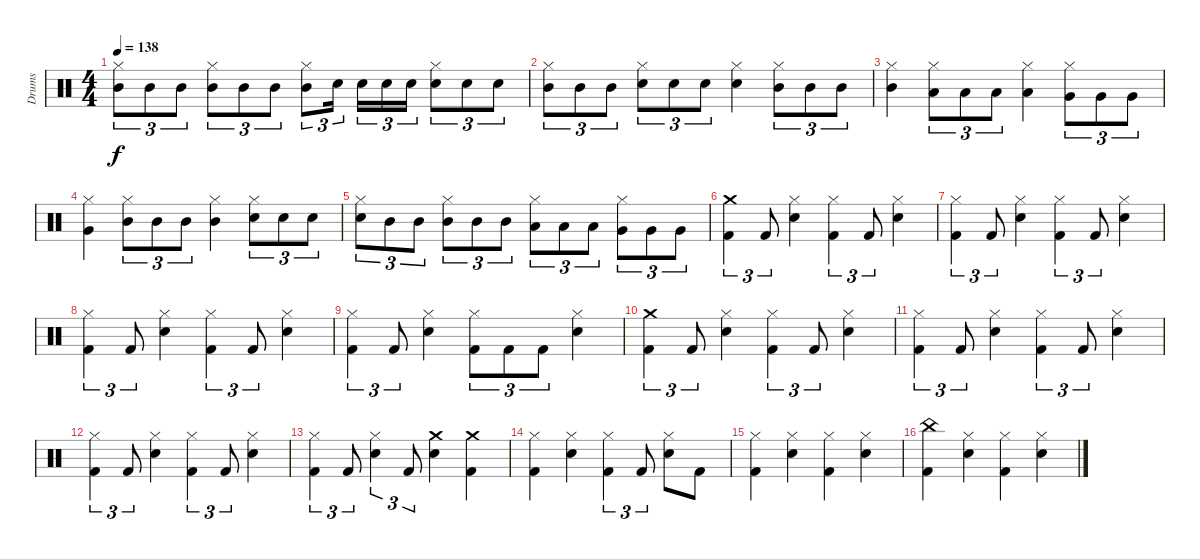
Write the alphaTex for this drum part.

\track ("Drums" "Drums") {instrument percussion}
\staff {score}
\articulation defaults
\ts (4 4)
\tempo 138
\clef neutral
\ks c
("Hi-Hat (closed)" "Mid Tom (hit)").8{tu (3 2) dy f} "Mid Tom (hit)".8{tu (3 2)} "Mid Tom (hit)".8{tu (3 2)} ("Hi-Hat (closed)" "Mid Tom (hit)").8{tu (3 2)} "Mid Tom (hit)".8{tu (3 2)} "Mid Tom (hit)".8{tu (3 2)} ("Hi-Hat (closed)" "Mid Tom (hit)").8{tu (3 2)} "Snare (hit) 2".16{tu (3 2)} "Snare (hit) 2".16{tu (3 2)} "Snare (hit) 2".16{tu (3 2)} "Snare (hit) 2".16{tu (3 2)} ("Hi-Hat (closed)" "Snare (hit) 2").8{tu (3 2)} "Snare (hit) 2".8{tu (3 2)} "Snare (hit) 2".8{tu (3 2)} |
("Hi-Hat (closed)" "Mid Tom (hit)").8{tu (3 2)} "Mid Tom (hit)".8{tu (3 2)} "Mid Tom (hit)".8{tu (3 2)} ("Hi-Hat (closed)" "Snare (hit) 2").8{tu (3 2)} "Snare (hit) 2".8{tu (3 2)} "Snare (hit) 2".8{tu (3 2)} ("Hi-Hat (closed)" "Snare (hit) 2").4 ("Hi-Hat (closed)" "Mid Tom (hit)").8{tu (3 2)} "Mid Tom (hit)".8{tu (3 2)} "Mid Tom (hit)".8{tu (3 2)} |
("Hi-Hat (closed)" "Mid Tom (hit)").4 ("Hi-Hat (closed)" "Low Tom (hit)").8{tu (3 2)} "Low Tom (hit)".8{tu (3 2)} "Low Tom (hit)".8{tu (3 2)} ("Hi-Hat (closed)" "Low Tom (hit)").4 ("Hi-Hat (closed)" "Very Low Tom (hit)").8{tu (3 2)} "Very Low Tom (hit)".8{tu (3 2)} "Very Low Tom (hit)".8{tu (3 2)} |
("Hi-Hat (closed)" "Very Low Tom (hit)").4 ("Hi-Hat (closed)" "Mid Tom (hit)").8{tu (3 2)} "Mid Tom (hit)".8{tu (3 2)} "Mid Tom (hit)".8{tu (3 2)} ("Hi-Hat (closed)" "Mid Tom (hit)").4 ("Snare (hit) 2" "Hi-Hat (closed)").8{tu (3 2)} "Snare (hit) 2".8{tu (3 2)} "Snare (hit) 2".8{tu (3 2)} |
("Snare (hit) 2" "Hi-Hat (closed)").8{tu (3 2)} "Mid Tom (hit)".8{tu (3 2)} "Mid Tom (hit)".8{tu (3 2)} ("Mid Tom (hit)" "Hi-Hat (closed)").8{tu (3 2)} "Mid Tom (hit)".8{tu (3 2)} "Mid Tom (hit)".8{tu (3 2)} ("Low Tom (hit)" "Hi-Hat (closed)").8{tu (3 2)} "Low Tom (hit)".8{tu (3 2)} "Low Tom (hit)".8{tu (3 2)} ("Very Low Tom (hit)" "Hi-Hat (closed)").8{tu (3 2)} "Very Low Tom (hit)".8{tu (3 2)} "Very Low Tom (hit)".8{tu (3 2)} |
("Kick (hit) 2" "Crash medium (hit)").4{tu (3 2)} "Kick (hit) 2".8{tu (3 2)} ("Snare (hit) 2" "Hi-Hat (closed)").4 ("Kick (hit) 2" "Hi-Hat (closed)").4{tu (3 2)} "Kick (hit) 2".8{tu (3 2)} ("Snare (hit) 2" "Hi-Hat (closed)").4 |
("Hi-Hat (closed)" "Kick (hit) 2").4{tu (3 2)} "Kick (hit) 2".8{tu (3 2)} ("Snare (hit) 2" "Hi-Hat (closed)").4 ("Kick (hit) 2" "Hi-Hat (closed)").4{tu (3 2)} "Kick (hit) 2".8{tu (3 2)} ("Snare (hit) 2" "Hi-Hat (closed)").4 |
("Hi-Hat (closed)" "Kick (hit) 2").4{tu (3 2)} "Kick (hit) 2".8{tu (3 2)} ("Snare (hit) 2" "Hi-Hat (closed)").4 ("Kick (hit) 2" "Hi-Hat (closed)").4{tu (3 2)} "Kick (hit) 2".8{tu (3 2)} ("Snare (hit) 2" "Hi-Hat (closed)").4 |
("Hi-Hat (closed)" "Kick (hit) 2").4{tu (3 2)} "Kick (hit) 2".8{tu (3 2)} ("Snare (hit) 2" "Hi-Hat (closed)").4 ("Kick (hit) 2" "Hi-Hat (closed)").8{tu (3 2)} "Kick (hit) 2".8{tu (3 2)} "Kick (hit) 2".8{tu (3 2)} ("Snare (hit) 2" "Hi-Hat (closed)").4 |
("Kick (hit) 2" "Crash medium (hit)").4{tu (3 2)} "Kick (hit) 2".8{tu (3 2)} ("Snare (hit) 2" "Hi-Hat (closed)").4 ("Kick (hit) 2" "Hi-Hat (closed)").4{tu (3 2)} "Kick (hit) 2".8{tu (3 2)} ("Snare (hit) 2" "Hi-Hat (closed)").4 |
("Hi-Hat (closed)" "Kick (hit) 2").4{tu (3 2)} "Kick (hit) 2".8{tu (3 2)} ("Snare (hit) 2" "Hi-Hat (closed)").4 ("Kick (hit) 2" "Hi-Hat (closed)").4{tu (3 2)} "Kick (hit) 2".8{tu (3 2)} ("Snare (hit) 2" "Hi-Hat (closed)").4 |
("Hi-Hat (closed)" "Kick (hit) 2").4{tu (3 2)} "Kick (hit) 2".8{tu (3 2)} ("Snare (hit) 2" "Hi-Hat (closed)").4 ("Kick (hit) 2" "Hi-Hat (closed)").4{tu (3 2)} "Kick (hit) 2".8{tu (3 2)} ("Snare (hit) 2" "Hi-Hat (closed)").4 |
("Hi-Hat (closed)" "Kick (hit) 2").4{tu (3 2)} "Kick (hit) 2".8{tu (3 2)} ("Snare (hit) 2" "Hi-Hat (closed)").4{tu (3 2)} "Kick (hit) 2".8{tu (3 2)} ("Snare (hit) 2" "Crash medium (hit)").4 ("Kick (hit) 2" "Crash medium (hit)").4 |
("Hi-Hat (closed)" "Kick (hit) 2").4 ("Hi-Hat (closed)" "Snare (hit) 2").4 ("Hi-Hat (closed)" "Kick (hit) 2").4{tu (3 2)} "Kick (hit) 2".8{tu (3 2)} ("Hi-Hat (closed)" "Snare (hit) 2").8 "Kick (hit) 2".8 |
("Hi-Hat (closed)" "Kick (hit) 2").4 ("Hi-Hat (closed)" "Snare (hit) 2").4 ("Hi-Hat (closed)" "Kick (hit) 2").4 ("Hi-Hat (closed)" "Snare (hit) 2").4 |
("China (hit)" "Kick (hit) 2").4 ("Hi-Hat (closed)" "Snare (hit) 2").4 ("Hi-Hat (closed)" "Kick (hit) 2").4 ("Hi-Hat (closed)" "Snare (hit) 2").4
